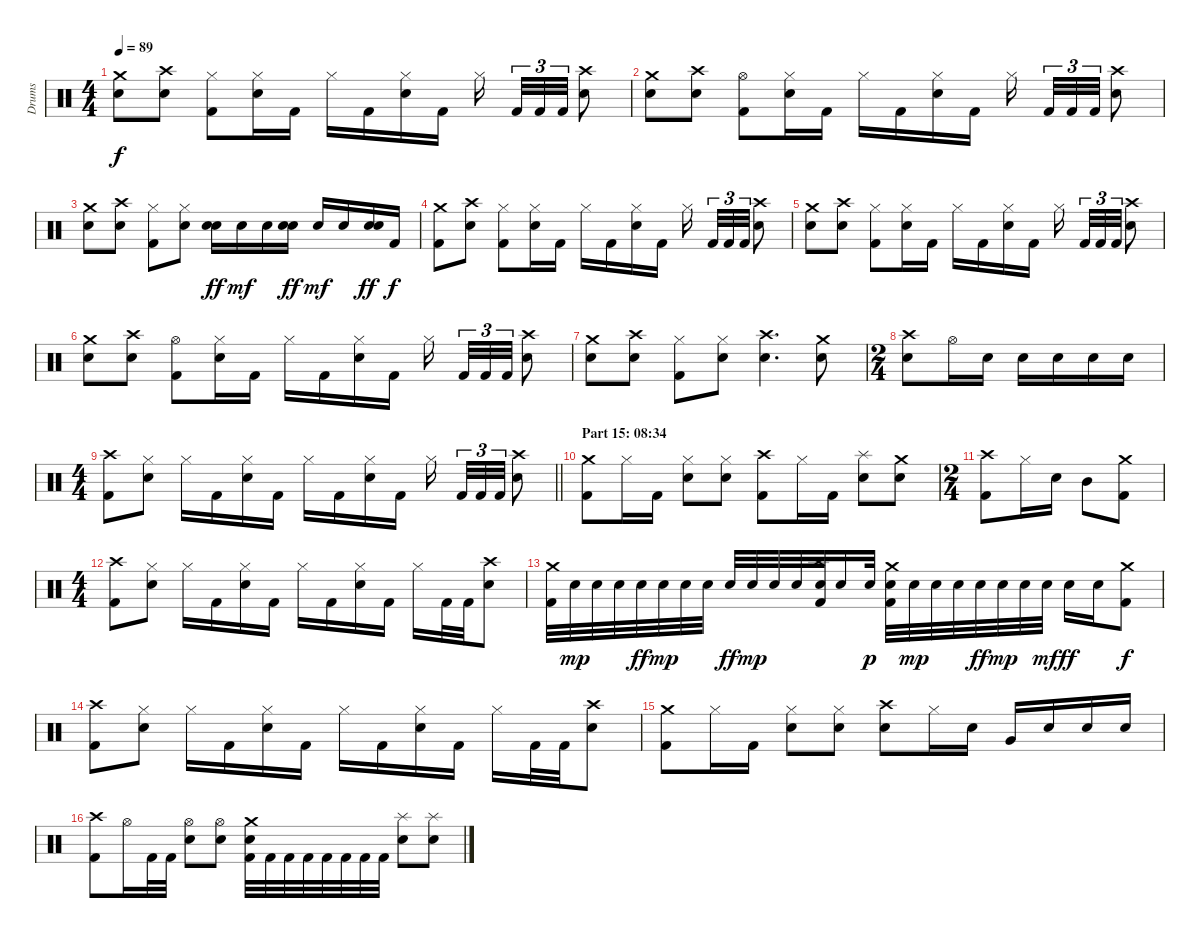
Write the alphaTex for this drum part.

\track ("Drums" "Drums") {instrument percussion}
\staff {score}
\articulation defaults
\ts (4 4)
\tempo 89
\clef neutral
\ks c
("Crash medium (hit)" "Electric Snare (hit)").8{dy f} ("Crash high (hit)" "Electric Snare (hit)").8 ("Hi-Hat (closed)" "Kick (hit) 2").8 ("Hi-Hat (closed)" "Electric Snare (hit)").16 "Kick (hit) 2".16 "Hi-Hat (closed)".16 "Kick (hit) 2".16 ("Hi-Hat (closed)" "Electric Snare (hit)").16 "Kick (hit) 2".16 "Hi-Hat (closed)".16{beam splitsecondary} "Kick (hit) 2".32{tu (3 2)} "Kick (hit) 2".32{tu (3 2)} "Kick (hit) 2".32{tu (3 2)} ("Crash high (hit)" "Electric Snare (hit)").8 |
("Crash medium (hit)" "Electric Snare (hit)").8 ("Crash high (hit)" "Electric Snare (hit)").8 ("Hi-Hat (open)" "Kick (hit) 2").8 ("Hi-Hat (closed)" "Electric Snare (hit)").16 "Kick (hit) 2".16 "Hi-Hat (closed)".16 "Kick (hit) 2".16 ("Hi-Hat (closed)" "Electric Snare (hit)").16 "Kick (hit) 2".16 "Hi-Hat (closed)".16{beam splitsecondary} "Kick (hit) 2".32{tu (3 2)} "Kick (hit) 2".32{tu (3 2)} "Kick (hit) 2".32{tu (3 2)} ("Crash high (hit)" "Electric Snare (hit)").8 |
("Crash medium (hit)" "Electric Snare (hit)").8 ("Crash high (hit)" "Electric Snare (hit)").8 ("Hi-Hat (closed)" "Kick (hit) 2").8 ("Hi-Hat (closed)" "Electric Snare (hit)").8 ("Electric Snare (hit)" "Electric Snare (hit)").16{bd 30 dy ff} "Electric Snare (hit)".16{dy mf} "Electric Snare (hit)".16 ("Electric Snare (hit)" "Electric Snare (hit)").16{bd 30 dy ff} "Electric Snare (hit)".16{dy mf} "Electric Snare (hit)".16 ("Electric Snare (hit)" "Electric Snare (hit)").16{bd 30 dy ff} "Kick (hit) 2".16{dy f} |
("Crash medium (hit)" "Kick (hit) 2").8 ("Crash high (hit)" "Electric Snare (hit)").8 ("Hi-Hat (closed)" "Kick (hit) 2").8 ("Hi-Hat (closed)" "Electric Snare (hit)").16 "Kick (hit) 2".16 "Hi-Hat (closed)".16 "Kick (hit) 2".16 ("Hi-Hat (closed)" "Electric Snare (hit)").16 "Kick (hit) 2".16 "Hi-Hat (closed)".16{beam splitsecondary} "Kick (hit) 2".32{tu (3 2)} "Kick (hit) 2".32{tu (3 2)} "Kick (hit) 2".32{tu (3 2)} ("Crash high (hit)" "Electric Snare (hit)").8 |
("Crash medium (hit)" "Electric Snare (hit)").8 ("Crash high (hit)" "Electric Snare (hit)").8 ("Hi-Hat (closed)" "Kick (hit) 2").8 ("Hi-Hat (closed)" "Electric Snare (hit)").16 "Kick (hit) 2".16 "Hi-Hat (closed)".16 "Kick (hit) 2".16 ("Hi-Hat (closed)" "Electric Snare (hit)").16 "Kick (hit) 2".16 "Hi-Hat (closed)".16{beam splitsecondary} "Kick (hit) 2".32{tu (3 2)} "Kick (hit) 2".32{tu (3 2)} "Kick (hit) 2".32{tu (3 2)} ("Crash high (hit)" "Electric Snare (hit)").8 |
("Crash medium (hit)" "Electric Snare (hit)").8 ("Crash high (hit)" "Electric Snare (hit)").8 ("Hi-Hat (open)" "Kick (hit) 2").8 ("Hi-Hat (closed)" "Electric Snare (hit)").16 "Kick (hit) 2".16 "Hi-Hat (closed)".16 "Kick (hit) 2".16 ("Hi-Hat (closed)" "Electric Snare (hit)").16 "Kick (hit) 2".16 "Hi-Hat (closed)".16{beam splitsecondary} "Kick (hit) 2".32{tu (3 2)} "Kick (hit) 2".32{tu (3 2)} "Kick (hit) 2".32{tu (3 2)} ("Crash high (hit)" "Electric Snare (hit)").8 |
("Crash medium (hit)" "Electric Snare (hit)").8 ("Crash high (hit)" "Electric Snare (hit)").8 ("Hi-Hat (closed)" "Kick (hit) 2").8 ("Hi-Hat (closed)" "Electric Snare (hit)").8 ("Crash high (hit)" "Electric Snare (hit)").4{d} ("Crash medium (hit)" "Electric Snare (hit)").8 |
\ts (2 4)
("Crash high (hit)" "Electric Snare (hit)").8 "Hi-Hat (open)".16 "Electric Snare (hit)".16 "Electric Snare (hit)".16 "Electric Snare (hit)".16 "Electric Snare (hit)".16 "Electric Snare (hit)".16 |
\ts (4 4)
\barLineRight lightlight
("Crash high (hit)" "Kick (hit) 2").8 ("Hi-Hat (closed)" "Electric Snare (hit)").8 "Hi-Hat (closed)".16 "Kick (hit) 2".16 ("Hi-Hat (closed)" "Electric Snare (hit)").16 "Kick (hit) 2".16 "Hi-Hat (closed)".16 "Kick (hit) 2".16 ("Hi-Hat (closed)" "Electric Snare (hit)").16 "Kick (hit) 2".16 "Hi-Hat (closed)".16{beam splitsecondary} "Kick (hit) 2".32{tu (3 2)} "Kick (hit) 2".32{tu (3 2)} "Kick (hit) 2".32{tu (3 2)} ("Crash high (hit)" "Electric Snare (hit)").8 |
\section ("" "Part 15: 08:34")
("Crash medium (hit)" "Kick (hit) 2").8 "Hi-Hat (closed)".16 "Kick (hit) 2".16 ("Hi-Hat (closed)" "Electric Snare (hit)").8 ("Hi-Hat (closed)" "Electric Snare (hit)").8 ("Crash high (hit)" "Kick (hit) 2").8 "Hi-Hat (closed)".16 "Kick (hit) 2".16 ("Splash (hit)" "Electric Snare (hit)").8 ("Crash medium (hit)" "Electric Snare (hit)").8 |
\ts (2 4)
("Crash high (hit)" "Kick (hit) 2").8 "Hi-Hat (closed)".16 "Electric Snare (hit)".16 "Mid Tom (hit)".8 ("Crash medium (hit)" "Kick (hit) 2").8 |
\ts (4 4)
("Crash high (hit)" "Kick (hit) 2").8 ("Hi-Hat (closed)" "Electric Snare (hit)").8 "Hi-Hat (closed)".16 "Kick (hit) 2".16 ("Hi-Hat (closed)" "Electric Snare (hit)").16 "Kick (hit) 2".16 "Hi-Hat (closed)".16 "Kick (hit) 2".16 ("Hi-Hat (closed)" "Electric Snare (hit)").16 "Kick (hit) 2".16 "Hi-Hat (closed)".16 "Kick (hit) 2".32 "Kick (hit) 2".32 ("Crash high (hit)" "Electric Snare (hit)").8 |
("Crash medium (hit)" "Kick (hit) 2").32 "Electric Snare (hit)".32{dy mp} "Electric Snare (hit)".32 "Electric Snare (hit)".32 "Electric Snare (hit)".32{dy ff} "Electric Snare (hit)".32{dy mp} "Electric Snare (hit)".32 "Electric Snare (hit)".32 "Electric Snare (hit)".32{dy ff} "Electric Snare (hit)".32{dy mp} "Electric Snare (hit)".32 "Electric Snare (hit)".32 ("Crash high (hit)" "Electric Snare (hit)" "Kick (hit) 2").32 "Electric Snare (hit)".16 "Electric Snare (hit)".32{dy p} ("Crash medium (hit)" "Electric Snare (hit)" "Kick (hit) 2").32 "Electric Snare (hit)".32{dy mp} "Electric Snare (hit)".32 "Electric Snare (hit)".32 "Electric Snare (hit)".32{dy ff} "Electric Snare (hit)".32{dy mp} "Electric Snare (hit)".32 "Electric Snare (hit)".32{dy mf} "Electric Snare (hit)".16{dy ff} "Electric Snare (hit)".16 ("Crash medium (hit)" "Kick (hit) 2").8{dy f} |
("Crash high (hit)" "Kick (hit) 2").8 ("Hi-Hat (closed)" "Electric Snare (hit)").8 "Hi-Hat (closed)".16 "Kick (hit) 2".16 ("Hi-Hat (closed)" "Electric Snare (hit)").16 "Kick (hit) 2".16 "Hi-Hat (closed)".16 "Kick (hit) 2".16 ("Hi-Hat (closed)" "Electric Snare (hit)").16 "Kick (hit) 2".16 "Hi-Hat (closed)".16 "Kick (hit) 2".32 "Kick (hit) 2".32 ("Crash high (hit)" "Electric Snare (hit)").8 |
("Crash medium (hit)" "Kick (hit) 2").8 "Hi-Hat (closed)".16 "Kick (hit) 2".16 ("Hi-Hat (closed)" "Electric Snare (hit)").8 ("Hi-Hat (closed)" "Electric Snare (hit)").8 ("Crash high (hit)" "Electric Snare (hit)").8 "Hi-Hat (closed)".16 "Electric Snare (hit)".16 "Very Low Tom (hit)".16 "Electric Snare (hit)".16 "Electric Snare (hit)".16 "Electric Snare (hit)".16 |
("Crash high (hit)" "Kick (hit) 2").8 "Hi-Hat (open)".16 "Kick (hit) 2".32 "Kick (hit) 2".32 ("Hi-Hat (open)" "Electric Snare (hit)").8 ("Hi-Hat (open)" "Electric Snare (hit)").8 ("Crash medium (hit)" "Electric Snare (hit)" "Kick (hit) 2").32 "Kick (hit) 2".32 "Kick (hit) 2".32 "Kick (hit) 2".32 "Kick (hit) 2".32 "Kick (hit) 2".32 "Kick (hit) 2".32 "Kick (hit) 2".32 ("Splash (hit)" "Electric Snare (hit)").8 ("Splash (hit)" "Electric Snare (hit)").8
